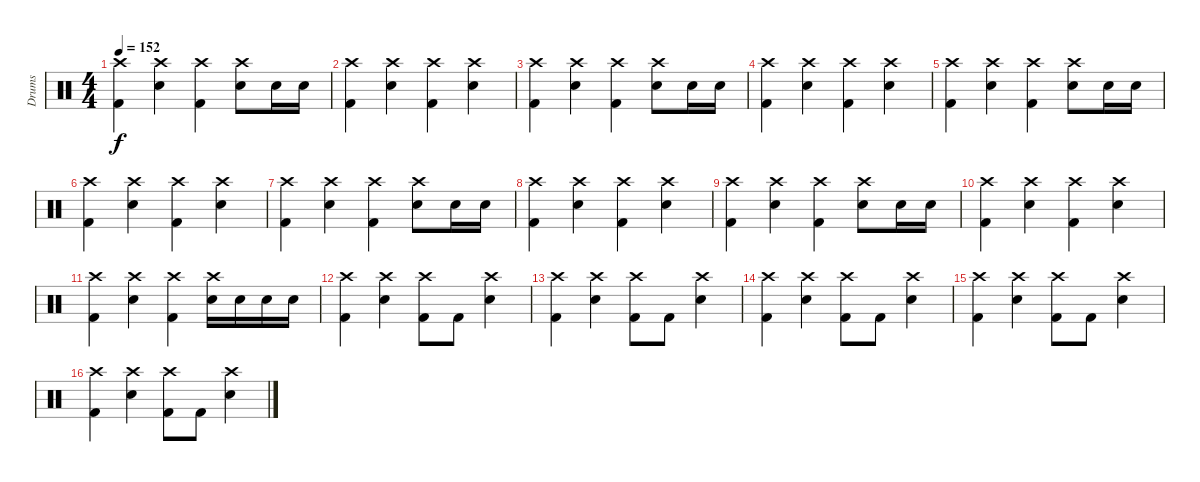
\track ("Drums" "Drums") {instrument percussion}
\staff {score}
\articulation defaults
\ts (4 4)
\tempo 152
\clef neutral
\ks c
("Crash high (hit)" "Kick (hit) 2").4{dy f} ("Crash high (hit)" "Electric Snare (hit)").4 ("Crash high (hit)" "Kick (hit) 2").4 ("Crash high (hit)" "Electric Snare (hit)").8 "Electric Snare (hit)".16 "Electric Snare (hit)".16 |
("Crash high (hit)" "Kick (hit) 2").4 ("Crash high (hit)" "Electric Snare (hit)").4 ("Crash high (hit)" "Kick (hit) 2").4 ("Crash high (hit)" "Electric Snare (hit)").4 |
("Crash high (hit)" "Kick (hit) 2").4 ("Crash high (hit)" "Electric Snare (hit)").4 ("Crash high (hit)" "Kick (hit) 2").4 ("Crash high (hit)" "Electric Snare (hit)").8 "Electric Snare (hit)".16 "Electric Snare (hit)".16 |
("Crash high (hit)" "Kick (hit) 2").4 ("Crash high (hit)" "Electric Snare (hit)").4 ("Crash high (hit)" "Kick (hit) 2").4 ("Crash high (hit)" "Electric Snare (hit)").4 |
("Crash high (hit)" "Kick (hit) 2").4 ("Crash high (hit)" "Electric Snare (hit)").4 ("Crash high (hit)" "Kick (hit) 2").4 ("Crash high (hit)" "Electric Snare (hit)").8 "Electric Snare (hit)".16 "Electric Snare (hit)".16 |
("Crash high (hit)" "Kick (hit) 2").4 ("Crash high (hit)" "Electric Snare (hit)").4 ("Crash high (hit)" "Kick (hit) 2").4 ("Crash high (hit)" "Electric Snare (hit)").4 |
("Crash high (hit)" "Kick (hit) 2").4 ("Crash high (hit)" "Electric Snare (hit)").4 ("Crash high (hit)" "Kick (hit) 2").4 ("Crash high (hit)" "Electric Snare (hit)").8 "Electric Snare (hit)".16 "Electric Snare (hit)".16 |
("Crash high (hit)" "Kick (hit) 2").4 ("Crash high (hit)" "Electric Snare (hit)").4 ("Crash high (hit)" "Kick (hit) 2").4 ("Crash high (hit)" "Electric Snare (hit)").4 |
("Crash high (hit)" "Kick (hit) 2").4 ("Crash high (hit)" "Electric Snare (hit)").4 ("Crash high (hit)" "Kick (hit) 2").4 ("Crash high (hit)" "Electric Snare (hit)").8 "Electric Snare (hit)".16 "Electric Snare (hit)".16 |
("Crash high (hit)" "Kick (hit) 2").4 ("Crash high (hit)" "Electric Snare (hit)").4 ("Crash high (hit)" "Kick (hit) 2").4 ("Crash high (hit)" "Electric Snare (hit)").4 |
("Crash high (hit)" "Kick (hit) 2").4 ("Crash high (hit)" "Electric Snare (hit)").4 ("Crash high (hit)" "Kick (hit) 2").4 ("Crash high (hit)" "Electric Snare (hit)").16 "Electric Snare (hit)".16 "Electric Snare (hit)".16 "Electric Snare (hit)".16 |
("Crash high (hit)" "Kick (hit) 2").4 ("Crash high (hit)" "Electric Snare (hit)").4 ("Crash high (hit)" "Kick (hit) 2").8 "Kick (hit) 2".8 ("Crash high (hit)" "Electric Snare (hit)").4 |
("Crash high (hit)" "Kick (hit) 2").4 ("Crash high (hit)" "Electric Snare (hit)").4 ("Crash high (hit)" "Kick (hit) 2").8 "Kick (hit) 2".8 ("Crash high (hit)" "Electric Snare (hit)").4 |
("Crash high (hit)" "Kick (hit) 2").4 ("Crash high (hit)" "Electric Snare (hit)").4 ("Crash high (hit)" "Kick (hit) 2").8 "Kick (hit) 2".8 ("Crash high (hit)" "Electric Snare (hit)").4 |
("Crash high (hit)" "Kick (hit) 2").4 ("Crash high (hit)" "Electric Snare (hit)").4 ("Crash high (hit)" "Kick (hit) 2").8 "Kick (hit) 2".8 ("Crash high (hit)" "Electric Snare (hit)").4 |
("Crash high (hit)" "Kick (hit) 2").4 ("Crash high (hit)" "Electric Snare (hit)").4 ("Crash high (hit)" "Kick (hit) 2").8 "Kick (hit) 2".8 ("Crash high (hit)" "Electric Snare (hit)").4
